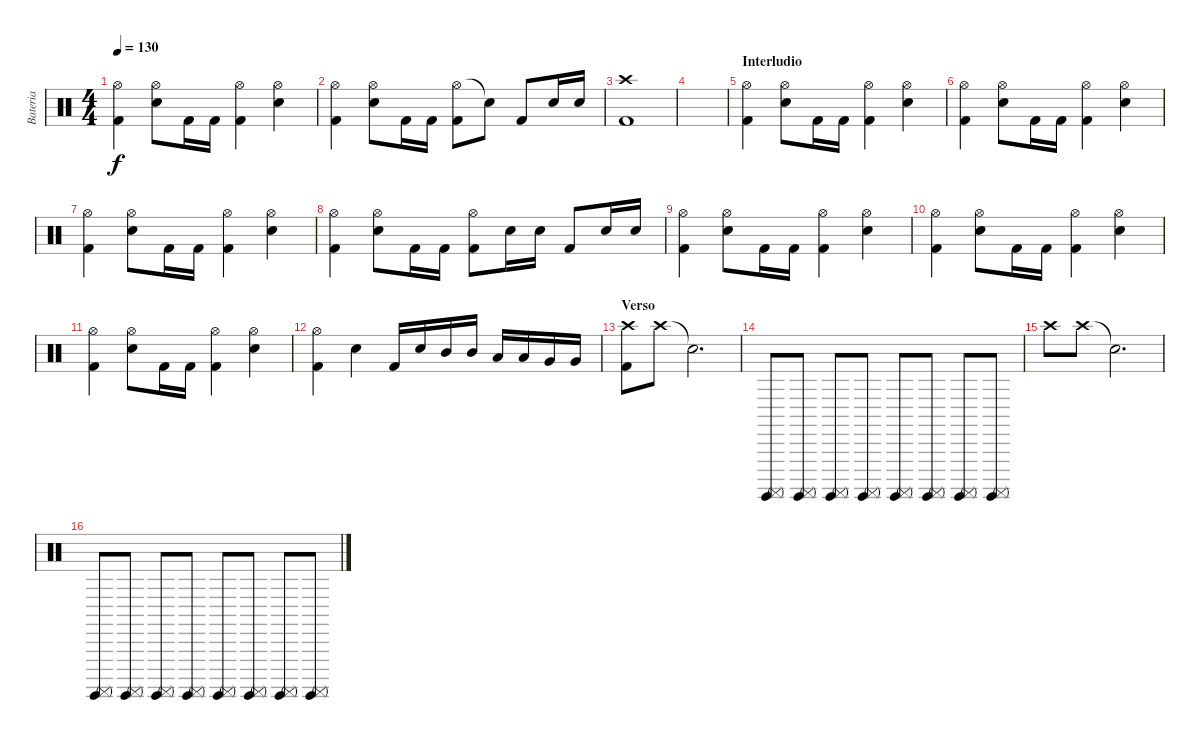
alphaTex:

\track ("Bateria" "Bateria") {instrument percussion}
\staff {score}
\articulation defaults
\ts (4 4)
\tempo 130
\clef neutral
\ks c
("Hi-Hat (open)" "Kick (hit) 2").4{dy f} ("Hi-Hat (open)" "Electric Snare (hit)").8 "Kick (hit) 2".16 "Kick (hit) 2".16 ("Hi-Hat (open)" "Kick (hit) 2").4 ("Hi-Hat (open)" "Electric Snare (hit)").4 |
("Hi-Hat (open)" "Kick (hit) 2").4 ("Hi-Hat (open)" "Electric Snare (hit)").8 "Kick (hit) 2".16 "Kick (hit) 2".16 ("Hi-Hat (open)" "Kick (hit) 2").8 "Snare (hit)"{t}.8 "Kick (hit) 2".8 "Electric Snare (hit)".16 "Electric Snare (hit)".16 |
("Crash high (hit)" "Kick (hit) 2").1 |
|
\section ("" "Interludio")
("Hi-Hat (open)" "Kick (hit) 2").4 ("Hi-Hat (open)" "Electric Snare (hit)").8 "Kick (hit) 2".16 "Kick (hit) 2".16 ("Hi-Hat (open)" "Kick (hit) 2").4 ("Hi-Hat (open)" "Electric Snare (hit)").4 |
("Hi-Hat (open)" "Kick (hit) 2").4 ("Hi-Hat (open)" "Electric Snare (hit)").8 "Kick (hit) 2".16 "Kick (hit) 2".16 ("Hi-Hat (open)" "Kick (hit) 2").4 ("Hi-Hat (open)" "Electric Snare (hit)").4 |
("Hi-Hat (open)" "Kick (hit) 2").4 ("Hi-Hat (open)" "Electric Snare (hit)").8 "Kick (hit) 2".16 "Kick (hit) 2".16 ("Hi-Hat (open)" "Kick (hit) 2").4 ("Hi-Hat (open)" "Electric Snare (hit)").4 |
("Hi-Hat (open)" "Kick (hit) 2").4 ("Hi-Hat (open)" "Electric Snare (hit)").8 "Kick (hit) 2".16 "Kick (hit) 2".16 ("Hi-Hat (open)" "Kick (hit) 2").8 "Electric Snare (hit)".16 "Electric Snare (hit)".16 "Kick (hit) 2".8 "Electric Snare (hit)".16 "Electric Snare (hit)".16 |
("Hi-Hat (open)" "Kick (hit) 2").4 ("Hi-Hat (open)" "Electric Snare (hit)").8 "Kick (hit) 2".16 "Kick (hit) 2".16 ("Hi-Hat (open)" "Kick (hit) 2").4 ("Hi-Hat (open)" "Electric Snare (hit)").4 |
("Hi-Hat (open)" "Kick (hit) 2").4 ("Hi-Hat (open)" "Electric Snare (hit)").8 "Kick (hit) 2".16 "Kick (hit) 2".16 ("Hi-Hat (open)" "Kick (hit) 2").4 ("Hi-Hat (open)" "Electric Snare (hit)").4 |
("Hi-Hat (open)" "Kick (hit) 2").4 ("Hi-Hat (open)" "Electric Snare (hit)").8 "Kick (hit) 2".16 "Kick (hit) 2".16 ("Hi-Hat (open)" "Kick (hit) 2").4 ("Hi-Hat (open)" "Electric Snare (hit)").4 |
("Hi-Hat (open)" "Kick (hit) 2").4 "Electric Snare (hit)".4 "Kick (hit) 2".16 "Electric Snare (hit)".16 "Mid Tom (hit)".16 "Mid Tom (hit)".16 "Low Tom (hit)".16 "Low Tom (hit)".16 "Very Low Tom (hit)".16 "Very Low Tom (hit)".16 |
\section ("" "Verso")
("Crash high (hit)" "Kick (hit) 2").8 "Crash high (hit)".8 "Snare (hit)"{t}.2{d volume 0} |
("Surdo (hit)" "Surdo (mute)").8{volume 15} ("Surdo (hit)" "Surdo (mute)").8 ("Surdo (hit)" "Surdo (mute)").8 ("Surdo (hit)" "Surdo (mute)").8 ("Surdo (hit)" "Surdo (mute)").8 ("Surdo (hit)" "Surdo (mute)").8 ("Surdo (hit)" "Surdo (mute)").8 ("Surdo (hit)" "Surdo (mute)").8 |
"Crash high (hit)".8 "Crash high (hit)".8 "Snare (hit)"{t}.2{d volume 0} |
("Surdo (hit)" "Surdo (mute)").8{volume 15} ("Surdo (hit)" "Surdo (mute)").8 ("Surdo (hit)" "Surdo (mute)").8 ("Surdo (hit)" "Surdo (mute)").8 ("Surdo (hit)" "Surdo (mute)").8 ("Surdo (hit)" "Surdo (mute)").8 ("Surdo (hit)" "Surdo (mute)").8 ("Surdo (hit)" "Surdo (mute)").8
